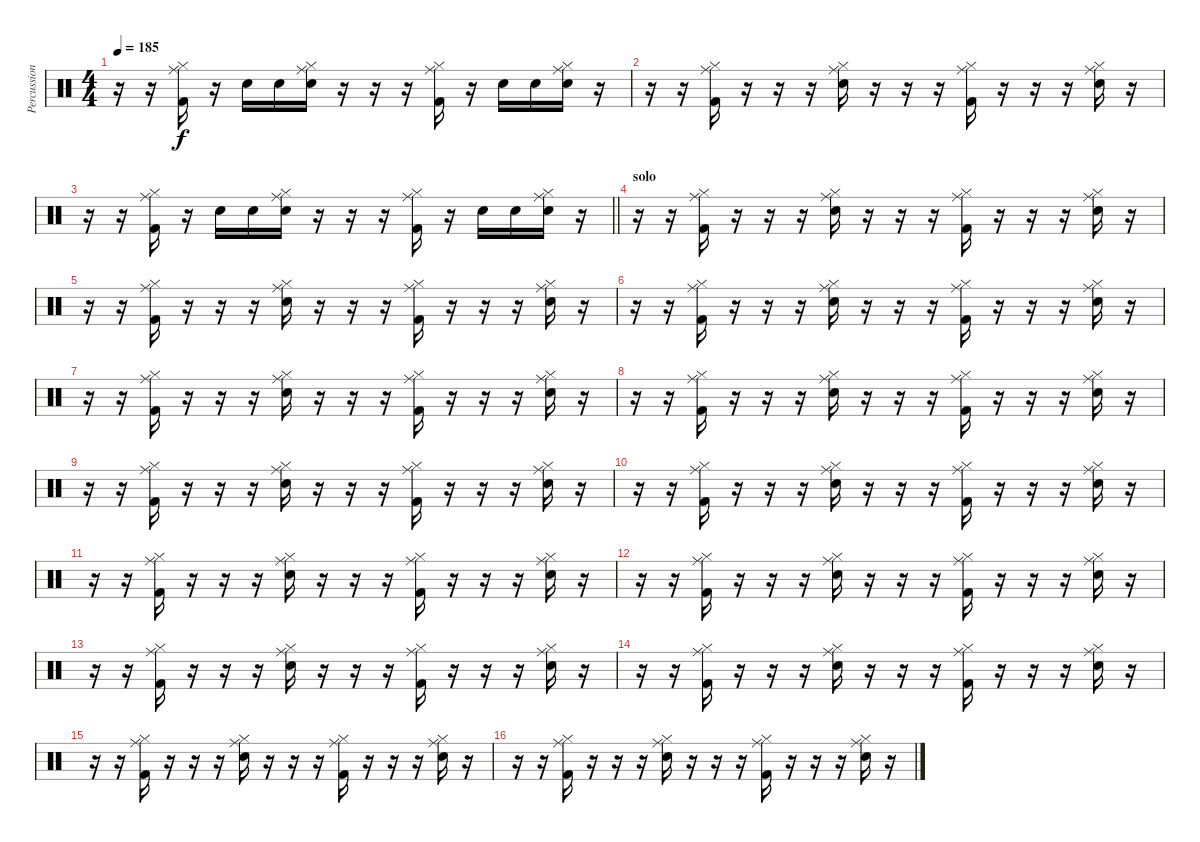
\track ("Percussion" "Percussion") {instrument percussion}
\staff {score}
\articulation defaults
\ts (4 4)
\tempo 185
\clef neutral
\ks c
r.16{dy f} r.16 ("Ride (middle)" "Hi-Hat (closed)" "Kick (hit) 2").16 r.16 "Snare (hit) 2".16 "Snare (hit) 2".16 ("Ride (middle)" "Hi-Hat (closed)" "Snare (hit) 2").16 r.16 r.16 r.16 ("Ride (middle)" "Hi-Hat (closed)" "Kick (hit) 2").16 r.16 "Snare (hit) 2".16 "Snare (hit) 2".16 ("Ride (middle)" "Hi-Hat (closed)" "Snare (hit) 2").16 r.16 |
r.16 r.16 ("Ride (middle)" "Hi-Hat (closed)" "Kick (hit) 2").16 r.16 r.16 r.16 ("Ride (middle)" "Hi-Hat (closed)" "Snare (hit) 2").16 r.16 r.16 r.16 ("Ride (middle)" "Hi-Hat (closed)" "Kick (hit) 2").16 r.16 r.16 r.16 ("Ride (middle)" "Hi-Hat (closed)" "Snare (hit) 2").16 r.16 |
\barLineRight lightlight
r.16 r.16 ("Ride (middle)" "Hi-Hat (closed)" "Kick (hit) 2").16 r.16 "Snare (hit) 2".16 "Snare (hit) 2".16 ("Ride (middle)" "Hi-Hat (closed)" "Snare (hit) 2").16 r.16 r.16 r.16 ("Ride (middle)" "Hi-Hat (closed)" "Kick (hit) 2").16 r.16 "Snare (hit) 2".16 "Snare (hit) 2".16 ("Ride (middle)" "Hi-Hat (closed)" "Snare (hit) 2").16 r.16 |
\section ("" "solo")
r.16 r.16 ("Ride (middle)" "Hi-Hat (closed)" "Kick (hit) 2").16 r.16 r.16 r.16 ("Ride (middle)" "Hi-Hat (closed)" "Snare (hit) 2").16 r.16 r.16 r.16 ("Ride (middle)" "Hi-Hat (closed)" "Kick (hit) 2").16 r.16 r.16 r.16 ("Ride (middle)" "Hi-Hat (closed)" "Snare (hit) 2").16 r.16 |
r.16 r.16 ("Ride (middle)" "Hi-Hat (closed)" "Kick (hit) 2").16 r.16 r.16 r.16 ("Ride (middle)" "Hi-Hat (closed)" "Snare (hit) 2").16 r.16 r.16 r.16 ("Ride (middle)" "Hi-Hat (closed)" "Kick (hit) 2").16 r.16 r.16 r.16 ("Ride (middle)" "Hi-Hat (closed)" "Snare (hit) 2").16 r.16 |
r.16 r.16 ("Ride (middle)" "Hi-Hat (closed)" "Kick (hit) 2").16 r.16 r.16 r.16 ("Ride (middle)" "Hi-Hat (closed)" "Snare (hit) 2").16 r.16 r.16 r.16 ("Ride (middle)" "Hi-Hat (closed)" "Kick (hit) 2").16 r.16 r.16 r.16 ("Ride (middle)" "Hi-Hat (closed)" "Snare (hit) 2").16 r.16 |
r.16 r.16 ("Ride (middle)" "Hi-Hat (closed)" "Kick (hit) 2").16 r.16 r.16 r.16 ("Ride (middle)" "Hi-Hat (closed)" "Snare (hit) 2").16 r.16 r.16 r.16 ("Ride (middle)" "Hi-Hat (closed)" "Kick (hit) 2").16 r.16 r.16 r.16 ("Ride (middle)" "Hi-Hat (closed)" "Snare (hit) 2").16 r.16 |
r.16 r.16 ("Ride (middle)" "Hi-Hat (closed)" "Kick (hit) 2").16 r.16 r.16 r.16 ("Ride (middle)" "Hi-Hat (closed)" "Snare (hit) 2").16 r.16 r.16 r.16 ("Ride (middle)" "Hi-Hat (closed)" "Kick (hit) 2").16 r.16 r.16 r.16 ("Ride (middle)" "Hi-Hat (closed)" "Snare (hit) 2").16 r.16 |
r.16 r.16 ("Ride (middle)" "Hi-Hat (closed)" "Kick (hit) 2").16 r.16 r.16 r.16 ("Ride (middle)" "Hi-Hat (closed)" "Snare (hit) 2").16 r.16 r.16 r.16 ("Ride (middle)" "Hi-Hat (closed)" "Kick (hit) 2").16 r.16 r.16 r.16 ("Ride (middle)" "Hi-Hat (closed)" "Snare (hit) 2").16 r.16 |
r.16 r.16 ("Ride (middle)" "Hi-Hat (closed)" "Kick (hit) 2").16 r.16 r.16 r.16 ("Ride (middle)" "Hi-Hat (closed)" "Snare (hit) 2").16 r.16 r.16 r.16 ("Ride (middle)" "Hi-Hat (closed)" "Kick (hit) 2").16 r.16 r.16 r.16 ("Ride (middle)" "Hi-Hat (closed)" "Snare (hit) 2").16 r.16 |
r.16 r.16 ("Ride (middle)" "Hi-Hat (closed)" "Kick (hit) 2").16 r.16 r.16 r.16 ("Ride (middle)" "Hi-Hat (closed)" "Snare (hit) 2").16 r.16 r.16 r.16 ("Ride (middle)" "Hi-Hat (closed)" "Kick (hit) 2").16 r.16 r.16 r.16 ("Ride (middle)" "Hi-Hat (closed)" "Snare (hit) 2").16 r.16 |
r.16 r.16 ("Ride (middle)" "Hi-Hat (closed)" "Kick (hit) 2").16 r.16 r.16 r.16 ("Ride (middle)" "Hi-Hat (closed)" "Snare (hit) 2").16 r.16 r.16 r.16 ("Ride (middle)" "Hi-Hat (closed)" "Kick (hit) 2").16 r.16 r.16 r.16 ("Ride (middle)" "Hi-Hat (closed)" "Snare (hit) 2").16 r.16 |
r.16 r.16 ("Ride (middle)" "Hi-Hat (closed)" "Kick (hit) 2").16 r.16 r.16 r.16 ("Ride (middle)" "Hi-Hat (closed)" "Snare (hit) 2").16 r.16 r.16 r.16 ("Ride (middle)" "Hi-Hat (closed)" "Kick (hit) 2").16 r.16 r.16 r.16 ("Ride (middle)" "Hi-Hat (closed)" "Snare (hit) 2").16 r.16 |
r.16 r.16 ("Ride (middle)" "Hi-Hat (closed)" "Kick (hit) 2").16 r.16 r.16 r.16 ("Ride (middle)" "Hi-Hat (closed)" "Snare (hit) 2").16 r.16 r.16 r.16 ("Ride (middle)" "Hi-Hat (closed)" "Kick (hit) 2").16 r.16 r.16 r.16 ("Ride (middle)" "Hi-Hat (closed)" "Snare (hit) 2").16 r.16 |
r.16 r.16 ("Ride (middle)" "Hi-Hat (closed)" "Kick (hit) 2").16 r.16 r.16 r.16 ("Ride (middle)" "Hi-Hat (closed)" "Snare (hit) 2").16 r.16 r.16 r.16 ("Ride (middle)" "Hi-Hat (closed)" "Kick (hit) 2").16 r.16 r.16 r.16 ("Ride (middle)" "Hi-Hat (closed)" "Snare (hit) 2").16 r.16 |
r.16 r.16 ("Ride (middle)" "Hi-Hat (closed)" "Kick (hit) 2").16 r.16 r.16 r.16 ("Ride (middle)" "Hi-Hat (closed)" "Snare (hit) 2").16 r.16 r.16 r.16 ("Ride (middle)" "Hi-Hat (closed)" "Kick (hit) 2").16 r.16 r.16 r.16 ("Ride (middle)" "Hi-Hat (closed)" "Snare (hit) 2").16 r.16
